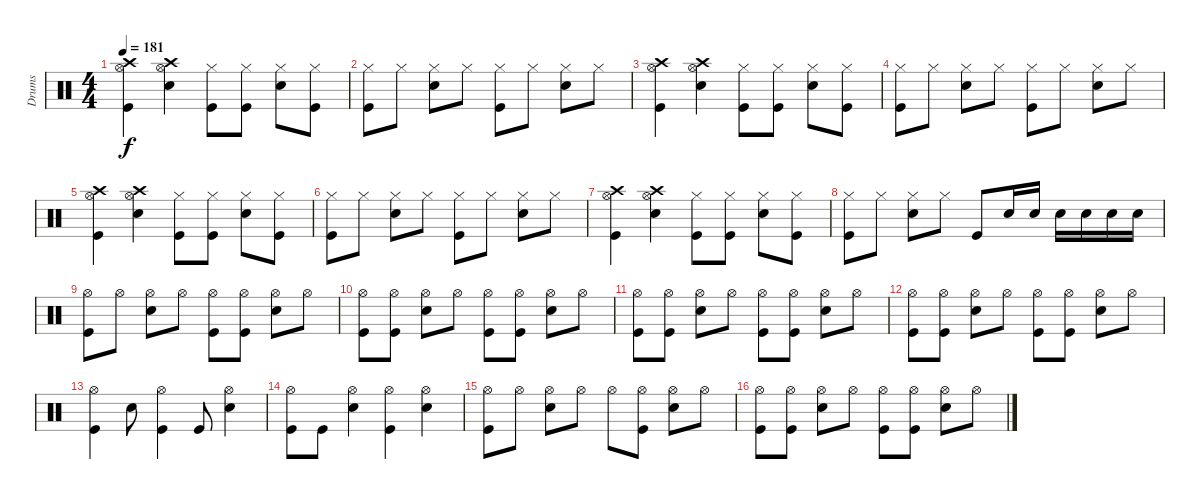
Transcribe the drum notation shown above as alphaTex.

\track ("Drums" "Drums") {instrument percussion}
\staff {score}
\articulation defaults
\ts (4 4)
\tempo 181
\clef neutral
\ks c
("Crash high (hit)" "Hi-Hat (open)" "Kick (hit)").4{dy f} ("Crash high (hit)" "Hi-Hat (open)" "Snare (hit) 2").4 ("Hi-Hat (closed)" "Kick (hit)").8 ("Hi-Hat (closed)" "Kick (hit)").8 ("Hi-Hat (closed)" "Snare (hit) 2").8 ("Hi-Hat (closed)" "Kick (hit)").8 |
("Hi-Hat (closed)" "Kick (hit)").8 "Hi-Hat (closed)".8 ("Hi-Hat (closed)" "Snare (hit) 2").8 "Hi-Hat (closed)".8 ("Hi-Hat (closed)" "Kick (hit)").8 "Hi-Hat (closed)".8 ("Hi-Hat (closed)" "Snare (hit) 2").8 "Hi-Hat (closed)".8 |
("Crash high (hit)" "Hi-Hat (open)" "Kick (hit)").4 ("Crash high (hit)" "Hi-Hat (open)" "Snare (hit) 2").4 ("Hi-Hat (closed)" "Kick (hit)").8 ("Hi-Hat (closed)" "Kick (hit)").8 ("Hi-Hat (closed)" "Snare (hit) 2").8 ("Hi-Hat (closed)" "Kick (hit)").8 |
("Hi-Hat (closed)" "Kick (hit)").8 "Hi-Hat (closed)".8 ("Hi-Hat (closed)" "Snare (hit) 2").8 "Hi-Hat (closed)".8 ("Hi-Hat (closed)" "Kick (hit)").8 "Hi-Hat (closed)".8 ("Hi-Hat (closed)" "Snare (hit) 2").8 "Hi-Hat (closed)".8 |
("Crash high (hit)" "Hi-Hat (open)" "Kick (hit)").4 ("Crash high (hit)" "Hi-Hat (open)" "Snare (hit) 2").4 ("Hi-Hat (closed)" "Kick (hit)").8 ("Hi-Hat (closed)" "Kick (hit)").8 ("Hi-Hat (closed)" "Snare (hit) 2").8 ("Hi-Hat (closed)" "Kick (hit)").8 |
("Hi-Hat (closed)" "Kick (hit)").8 "Hi-Hat (closed)".8 ("Hi-Hat (closed)" "Snare (hit) 2").8 "Hi-Hat (closed)".8 ("Hi-Hat (closed)" "Kick (hit)").8 "Hi-Hat (closed)".8 ("Hi-Hat (closed)" "Snare (hit) 2").8 "Hi-Hat (closed)".8 |
("Crash high (hit)" "Hi-Hat (open)" "Kick (hit)").4 ("Crash high (hit)" "Hi-Hat (open)" "Snare (hit) 2").4 ("Hi-Hat (closed)" "Kick (hit)").8 ("Hi-Hat (closed)" "Kick (hit)").8 ("Hi-Hat (closed)" "Snare (hit) 2").8 ("Hi-Hat (closed)" "Kick (hit)").8 |
("Hi-Hat (closed)" "Kick (hit)").8 "Hi-Hat (closed)".8 ("Hi-Hat (closed)" "Snare (hit) 2").8 "Hi-Hat (closed)".8 "Kick (hit)".8 "Snare (hit) 2".16 "Snare (hit) 2".16 "Snare (hit) 2".16 "Snare (hit) 2".16 "Snare (hit) 2".16 "Snare (hit) 2".16 |
("Hi-Hat (open)" "Kick (hit)").8 "Hi-Hat (open)".8 ("Hi-Hat (open)" "Snare (hit) 2").8 "Hi-Hat (open)".8 ("Hi-Hat (open)" "Kick (hit)").8 ("Hi-Hat (open)" "Kick (hit)").8 ("Hi-Hat (open)" "Snare (hit) 2").8 "Hi-Hat (open)".8 |
("Hi-Hat (open)" "Kick (hit)").8 ("Hi-Hat (open)" "Kick (hit)").8 ("Hi-Hat (open)" "Snare (hit) 2").8 "Hi-Hat (open)".8 ("Hi-Hat (open)" "Kick (hit)").8 ("Hi-Hat (open)" "Kick (hit)").8 ("Hi-Hat (open)" "Snare (hit) 2").8 "Hi-Hat (open)".8 |
("Hi-Hat (open)" "Kick (hit)").8 ("Hi-Hat (open)" "Kick (hit)").8 ("Hi-Hat (open)" "Snare (hit) 2").8 "Hi-Hat (open)".8 ("Hi-Hat (open)" "Kick (hit)").8 ("Hi-Hat (open)" "Kick (hit)").8 ("Hi-Hat (open)" "Snare (hit) 2").8 "Hi-Hat (open)".8 |
("Hi-Hat (open)" "Kick (hit)").8 ("Hi-Hat (open)" "Kick (hit)").8 ("Hi-Hat (open)" "Snare (hit) 2").8 "Hi-Hat (open)".8 ("Hi-Hat (open)" "Kick (hit)").8 ("Hi-Hat (open)" "Kick (hit)").8 ("Hi-Hat (open)" "Snare (hit) 2").8 "Hi-Hat (open)".8 |
("Hi-Hat (open)" "Kick (hit)").4 "Snare (hit) 2".8 ("Hi-Hat (open)" "Kick (hit)").4 "Kick (hit)".8 ("Hi-Hat (open)" "Snare (hit) 2").4 |
("Hi-Hat (open)" "Kick (hit)").8 "Kick (hit)".8 ("Hi-Hat (open)" "Snare (hit) 2").4 ("Hi-Hat (open)" "Kick (hit)").4 ("Hi-Hat (open)" "Snare (hit) 2").4 |
("Hi-Hat (open)" "Kick (hit)").8 "Hi-Hat (open)".8 ("Hi-Hat (open)" "Snare (hit) 2").8 "Hi-Hat (open)".8 "Hi-Hat (open)".8 ("Hi-Hat (open)" "Kick (hit)").8 ("Hi-Hat (open)" "Snare (hit) 2").8 "Hi-Hat (open)".8 |
("Hi-Hat (open)" "Kick (hit)").8 ("Hi-Hat (open)" "Kick (hit)").8 ("Hi-Hat (open)" "Snare (hit) 2").8 "Hi-Hat (open)".8 ("Hi-Hat (open)" "Kick (hit)").8 ("Hi-Hat (open)" "Kick (hit)").8 ("Hi-Hat (open)" "Snare (hit) 2").8 "Hi-Hat (open)".8
